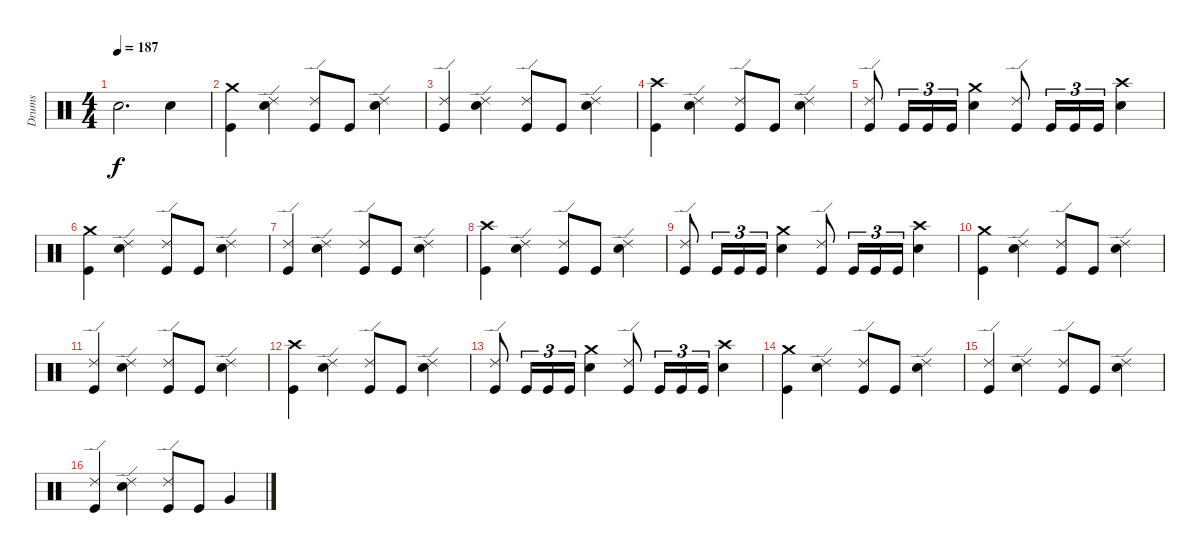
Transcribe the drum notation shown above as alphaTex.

\track ("Drums" "Drums") {instrument percussion}
\staff {score}
\articulation defaults
\ts (4 4)
\tempo 187
\clef neutral
\ks c "Snare (hit) 2".2{d dy f} "Snare (hit) 2".4
|
("Crash medium (hit)" "Kick (hit)").4 ("Ride (edge) 2" "Snare (hit) 2").4 ("Ride (edge) 2" "Kick (hit)").8 "Kick (hit)".8 ("Ride (edge) 2" "Snare (hit) 2").4 |
("Ride (edge) 2" "Kick (hit)").4 ("Ride (edge) 2" "Snare (hit) 2").4 ("Ride (edge) 2" "Kick (hit)").8 "Kick (hit)".8 ("Ride (edge) 2" "Snare (hit) 2").4 |
("Crash high (hit)" "Kick (hit)").4 ("Ride (edge) 2" "Snare (hit) 2").4 ("Ride (edge) 2" "Kick (hit)").8 "Kick (hit)".8 ("Ride (edge) 2" "Snare (hit) 2").4 |
("Ride (edge) 2" "Kick (hit)").8 "Kick (hit)".16{tu (3 2)} "Kick (hit)".16{tu (3 2)} "Kick (hit)".16{tu (3 2)} ("Crash medium (hit)" "Snare (hit) 2").4 ("Ride (edge) 2" "Kick (hit)").8 "Kick (hit)".16{tu (3 2)} "Kick (hit)".16{tu (3 2)} "Kick (hit)".16{tu (3 2)} ("Crash high (hit)" "Snare (hit) 2").4 |
("Crash medium (hit)" "Kick (hit)").4 ("Ride (edge) 2" "Snare (hit) 2").4 ("Ride (edge) 2" "Kick (hit)").8 "Kick (hit)".8 ("Ride (edge) 2" "Snare (hit) 2").4 |
("Ride (edge) 2" "Kick (hit)").4 ("Ride (edge) 2" "Snare (hit) 2").4 ("Ride (edge) 2" "Kick (hit)").8 "Kick (hit)".8 ("Ride (edge) 2" "Snare (hit) 2").4 |
("Crash high (hit)" "Kick (hit)").4 ("Ride (edge) 2" "Snare (hit) 2").4 ("Ride (edge) 2" "Kick (hit)").8 "Kick (hit)".8 ("Ride (edge) 2" "Snare (hit) 2").4 |
("Ride (edge) 2" "Kick (hit)").8 "Kick (hit)".16{tu (3 2)} "Kick (hit)".16{tu (3 2)} "Kick (hit)".16{tu (3 2)} ("Crash medium (hit)" "Snare (hit) 2").4 ("Ride (edge) 2" "Kick (hit)").8 "Kick (hit)".16{tu (3 2)} "Kick (hit)".16{tu (3 2)} "Kick (hit)".16{tu (3 2)} ("Crash high (hit)" "Snare (hit) 2").4 |
("Crash medium (hit)" "Kick (hit)").4 ("Ride (edge) 2" "Snare (hit) 2").4 ("Ride (edge) 2" "Kick (hit)").8 "Kick (hit)".8 ("Ride (edge) 2" "Snare (hit) 2").4 |
("Ride (edge) 2" "Kick (hit)").4 ("Ride (edge) 2" "Snare (hit) 2").4 ("Ride (edge) 2" "Kick (hit)").8 "Kick (hit)".8 ("Ride (edge) 2" "Snare (hit) 2").4 |
("Crash high (hit)" "Kick (hit)").4 ("Ride (edge) 2" "Snare (hit) 2").4 ("Ride (edge) 2" "Kick (hit)").8 "Kick (hit)".8 ("Ride (edge) 2" "Snare (hit) 2").4 |
("Ride (edge) 2" "Kick (hit)").8 "Kick (hit)".16{tu (3 2)} "Kick (hit)".16{tu (3 2)} "Kick (hit)".16{tu (3 2)} ("Crash medium (hit)" "Snare (hit) 2").4 ("Ride (edge) 2" "Kick (hit)").8 "Kick (hit)".16{tu (3 2)} "Kick (hit)".16{tu (3 2)} "Kick (hit)".16{tu (3 2)} ("Crash high (hit)" "Snare (hit) 2").4 |
("Crash medium (hit)" "Kick (hit)").4 ("Ride (edge) 2" "Snare (hit) 2").4 ("Ride (edge) 2" "Kick (hit)").8 "Kick (hit)".8 ("Ride (edge) 2" "Snare (hit) 2").4 |
("Ride (edge) 2" "Kick (hit)").4 ("Ride (edge) 2" "Snare (hit) 2").4 ("Ride (edge) 2" "Kick (hit)").8 "Kick (hit)".8 ("Ride (edge) 2" "Snare (hit) 2").4 |
("Ride (edge) 2" "Kick (hit)").4 ("Ride (edge) 2" "Snare (hit) 2").4 ("Ride (edge) 2" "Kick (hit)").8 "Kick (hit)".8 "Very Low Tom (hit)".4
